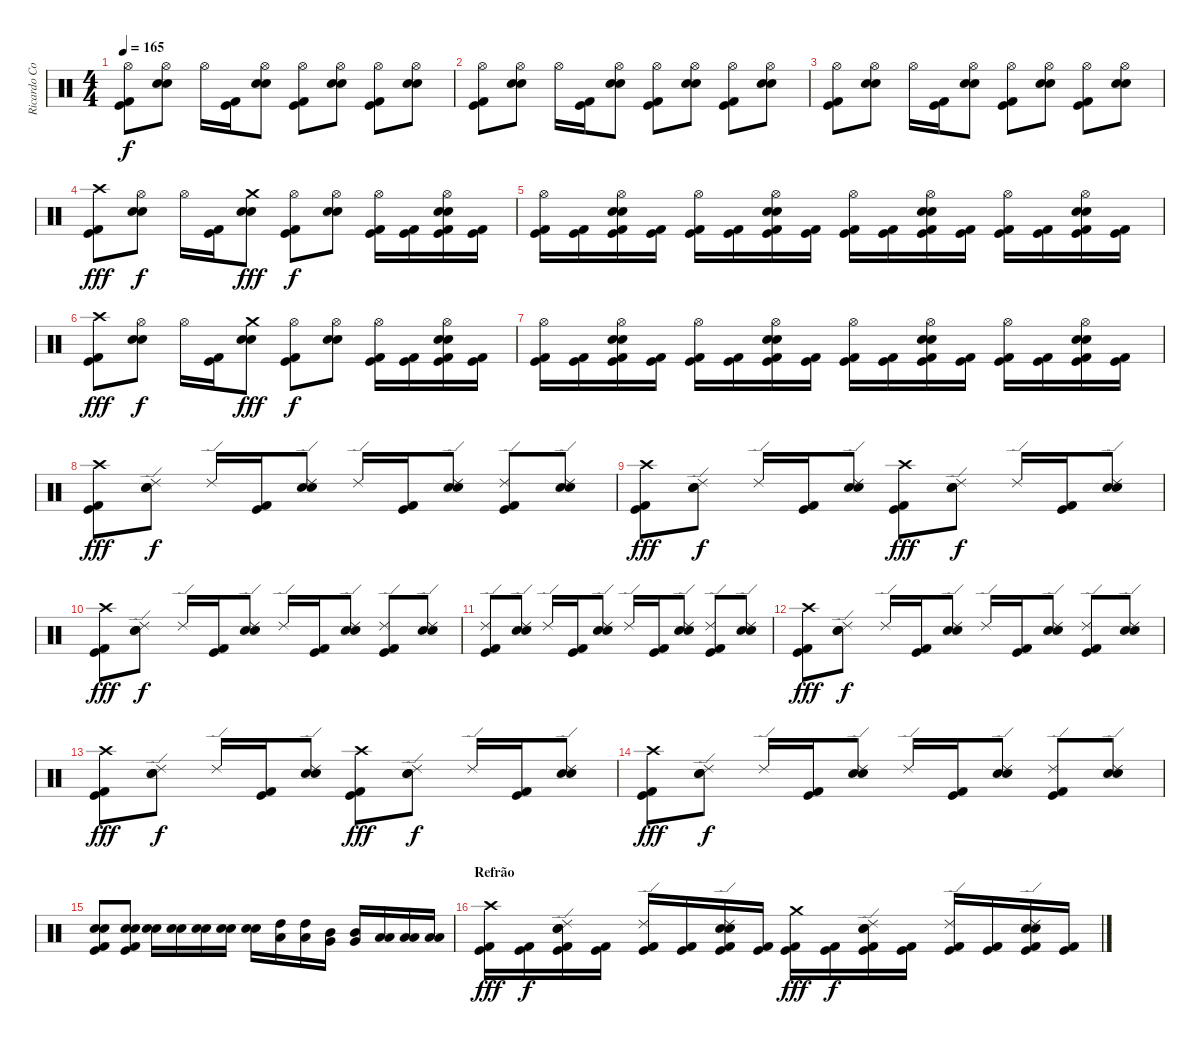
\track ("Ricardo Confessori" "Ricardo Co") {instrument percussion}
\staff {score}
\articulation defaults
\ts (4 4)
\tempo 165
\clef neutral
\ks c
("Hi-Hat (open)" "Kick (hit) 2" "Kick (hit)").8{dy f} ("Hi-Hat (open)" "Electric Snare (hit)" "Snare (hit) 2").8 "Hi-Hat (open)".16 ("Kick (hit) 2" "Kick (hit)").16 ("Hi-Hat (open)" "Electric Snare (hit)" "Snare (hit) 2").8 ("Hi-Hat (open)" "Kick (hit) 2" "Kick (hit)").8 ("Hi-Hat (open)" "Electric Snare (hit)" "Snare (hit) 2").8 ("Hi-Hat (open)" "Kick (hit) 2" "Kick (hit)").8 ("Hi-Hat (open)" "Electric Snare (hit)" "Snare (hit) 2").8 |
("Hi-Hat (open)" "Kick (hit) 2" "Kick (hit)").8 ("Hi-Hat (open)" "Electric Snare (hit)" "Snare (hit) 2").8 "Hi-Hat (open)".16 ("Kick (hit) 2" "Kick (hit)").16 ("Hi-Hat (open)" "Electric Snare (hit)" "Snare (hit) 2").8 ("Hi-Hat (open)" "Kick (hit) 2" "Kick (hit)").8 ("Hi-Hat (open)" "Electric Snare (hit)" "Snare (hit) 2").8 ("Hi-Hat (open)" "Kick (hit) 2" "Kick (hit)").8 ("Hi-Hat (open)" "Electric Snare (hit)" "Snare (hit) 2").8 |
("Hi-Hat (open)" "Kick (hit) 2" "Kick (hit)").8 ("Hi-Hat (open)" "Electric Snare (hit)" "Snare (hit) 2").8 "Hi-Hat (open)".16 ("Kick (hit) 2" "Kick (hit)").16 ("Hi-Hat (open)" "Electric Snare (hit)" "Snare (hit) 2").8 ("Hi-Hat (open)" "Kick (hit) 2" "Kick (hit)").8 ("Hi-Hat (open)" "Electric Snare (hit)" "Snare (hit) 2").8 ("Hi-Hat (open)" "Kick (hit) 2" "Kick (hit)").8 ("Hi-Hat (open)" "Electric Snare (hit)" "Snare (hit) 2").8 |
("Crash high (hit)" "Kick (hit) 2" "Kick (hit)").8{dy fff} ("Hi-Hat (open)" "Electric Snare (hit)" "Snare (hit) 2").8{dy f} "Hi-Hat (open)".16 ("Kick (hit) 2" "Kick (hit)").16 ("Crash medium (hit)" "Electric Snare (hit)" "Snare (hit) 2").8{dy fff} ("Hi-Hat (open)" "Kick (hit) 2" "Kick (hit)").8{dy f} ("Hi-Hat (open)" "Electric Snare (hit)" "Snare (hit) 2").8 ("Hi-Hat (open)" "Kick (hit) 2" "Kick (hit)").16 ("Kick (hit) 2" "Kick (hit)").16 ("Hi-Hat (open)" "Electric Snare (hit)" "Snare (hit) 2" "Kick (hit) 2" "Kick (hit)").16 ("Kick (hit) 2" "Kick (hit)").16 |
("Hi-Hat (open)" "Kick (hit) 2" "Kick (hit)").16 ("Kick (hit) 2" "Kick (hit)").16 ("Hi-Hat (open)" "Electric Snare (hit)" "Snare (hit) 2" "Kick (hit) 2" "Kick (hit)").16 ("Kick (hit) 2" "Kick (hit)").16 ("Hi-Hat (open)" "Kick (hit) 2" "Kick (hit)").16 ("Kick (hit) 2" "Kick (hit)").16 ("Hi-Hat (open)" "Electric Snare (hit)" "Snare (hit) 2" "Kick (hit) 2" "Kick (hit)").16 ("Kick (hit) 2" "Kick (hit)").16 ("Hi-Hat (open)" "Kick (hit) 2" "Kick (hit)").16 ("Kick (hit) 2" "Kick (hit)").16 ("Hi-Hat (open)" "Electric Snare (hit)" "Snare (hit) 2" "Kick (hit) 2" "Kick (hit)").16 ("Kick (hit) 2" "Kick (hit)").16 ("Hi-Hat (open)" "Kick (hit) 2" "Kick (hit)").16 ("Kick (hit) 2" "Kick (hit)").16 ("Hi-Hat (open)" "Electric Snare (hit)" "Snare (hit) 2" "Kick (hit) 2" "Kick (hit)").16 ("Kick (hit) 2" "Kick (hit)").16 |
("Crash high (hit)" "Kick (hit) 2" "Kick (hit)").8{dy fff} ("Hi-Hat (open)" "Electric Snare (hit)" "Snare (hit) 2").8{dy f} "Hi-Hat (open)".16 ("Kick (hit) 2" "Kick (hit)").16 ("Crash medium (hit)" "Electric Snare (hit)" "Snare (hit) 2").8{dy fff} ("Hi-Hat (open)" "Kick (hit) 2" "Kick (hit)").8{dy f} ("Hi-Hat (open)" "Electric Snare (hit)" "Snare (hit) 2").8 ("Hi-Hat (open)" "Kick (hit) 2" "Kick (hit)").16 ("Kick (hit) 2" "Kick (hit)").16 ("Hi-Hat (open)" "Electric Snare (hit)" "Snare (hit) 2" "Kick (hit) 2" "Kick (hit)").16 ("Kick (hit) 2" "Kick (hit)").16 |
("Hi-Hat (open)" "Kick (hit) 2" "Kick (hit)").16 ("Kick (hit) 2" "Kick (hit)").16 ("Hi-Hat (open)" "Electric Snare (hit)" "Snare (hit) 2" "Kick (hit) 2" "Kick (hit)").16 ("Kick (hit) 2" "Kick (hit)").16 ("Hi-Hat (open)" "Kick (hit) 2" "Kick (hit)").16 ("Kick (hit) 2" "Kick (hit)").16 ("Hi-Hat (open)" "Electric Snare (hit)" "Snare (hit) 2" "Kick (hit) 2" "Kick (hit)").16 ("Kick (hit) 2" "Kick (hit)").16 ("Hi-Hat (open)" "Kick (hit) 2" "Kick (hit)").16 ("Kick (hit) 2" "Kick (hit)").16 ("Hi-Hat (open)" "Electric Snare (hit)" "Snare (hit) 2" "Kick (hit) 2" "Kick (hit)").16 ("Kick (hit) 2" "Kick (hit)").16 ("Hi-Hat (open)" "Kick (hit) 2" "Kick (hit)").16 ("Kick (hit) 2" "Kick (hit)").16 ("Hi-Hat (open)" "Electric Snare (hit)" "Snare (hit) 2" "Kick (hit) 2" "Kick (hit)").16 ("Kick (hit) 2" "Kick (hit)").16 |
("Crash high (hit)" "Kick (hit) 2" "Kick (hit)").8{dy fff} ("Ride (edge) 2" "Electric Snare (hit)" "Snare (hit) 2").8{dy f} "Ride (edge) 2".16 ("Kick (hit) 2" "Kick (hit)").16 ("Ride (edge) 2" "Electric Snare (hit)" "Snare (hit) 2").8 "Ride (edge) 2".16 ("Kick (hit) 2" "Kick (hit)").16 ("Ride (edge) 2" "Electric Snare (hit)" "Snare (hit) 2").8 ("Ride (edge) 2" "Kick (hit) 2" "Kick (hit)").8 ("Ride (edge) 2" "Electric Snare (hit)" "Snare (hit) 2").8 |
("Crash high (hit)" "Kick (hit) 2" "Kick (hit)").8{dy fff} ("Ride (edge) 2" "Electric Snare (hit)" "Snare (hit) 2").8{dy f} "Ride (edge) 2".16 ("Kick (hit) 2" "Kick (hit)").16 ("Ride (edge) 2" "Electric Snare (hit)" "Snare (hit) 2").8 ("Crash high (hit)" "Kick (hit) 2" "Kick (hit)").8{dy fff} ("Ride (edge) 2" "Electric Snare (hit)" "Snare (hit) 2").8{dy f} "Ride (edge) 2".16 ("Kick (hit) 2" "Kick (hit)").16 ("Ride (edge) 2" "Electric Snare (hit)" "Snare (hit) 2").8 |
("Crash high (hit)" "Kick (hit) 2" "Kick (hit)").8{dy fff} ("Ride (edge) 2" "Electric Snare (hit)" "Snare (hit) 2").8{dy f} "Ride (edge) 2".16 ("Kick (hit) 2" "Kick (hit)").16 ("Ride (edge) 2" "Electric Snare (hit)" "Snare (hit) 2").8 "Ride (edge) 2".16 ("Kick (hit) 2" "Kick (hit)").16 ("Ride (edge) 2" "Electric Snare (hit)" "Snare (hit) 2").8 ("Ride (edge) 2" "Kick (hit) 2" "Kick (hit)").8 ("Ride (edge) 2" "Electric Snare (hit)" "Snare (hit) 2").8 |
("Ride (edge) 2" "Kick (hit) 2" "Kick (hit)").8 ("Ride (edge) 2" "Electric Snare (hit)" "Snare (hit) 2").8 "Ride (edge) 2".16 ("Kick (hit) 2" "Kick (hit)").16 ("Ride (edge) 2" "Electric Snare (hit)" "Snare (hit) 2").8 "Ride (edge) 2".16 ("Kick (hit) 2" "Kick (hit)").16 ("Ride (edge) 2" "Electric Snare (hit)" "Snare (hit) 2").8 ("Ride (edge) 2" "Kick (hit) 2" "Kick (hit)").8 ("Ride (edge) 2" "Electric Snare (hit)" "Snare (hit) 2").8 |
("Crash high (hit)" "Kick (hit) 2" "Kick (hit)").8{dy fff} ("Ride (edge) 2" "Electric Snare (hit)" "Snare (hit) 2").8{dy f} "Ride (edge) 2".16 ("Kick (hit) 2" "Kick (hit)").16 ("Ride (edge) 2" "Electric Snare (hit)" "Snare (hit) 2").8 "Ride (edge) 2".16 ("Kick (hit) 2" "Kick (hit)").16 ("Ride (edge) 2" "Electric Snare (hit)" "Snare (hit) 2").8 ("Ride (edge) 2" "Kick (hit) 2" "Kick (hit)").8 ("Ride (edge) 2" "Electric Snare (hit)" "Snare (hit) 2").8 |
("Crash high (hit)" "Kick (hit) 2" "Kick (hit)").8{dy fff} ("Ride (edge) 2" "Electric Snare (hit)" "Snare (hit) 2").8{dy f} "Ride (edge) 2".16 ("Kick (hit) 2" "Kick (hit)").16 ("Ride (edge) 2" "Electric Snare (hit)" "Snare (hit) 2").8 ("Crash high (hit)" "Kick (hit) 2" "Kick (hit)").8{dy fff} ("Ride (edge) 2" "Electric Snare (hit)" "Snare (hit) 2").8{dy f} "Ride (edge) 2".16 ("Kick (hit) 2" "Kick (hit)").16 ("Ride (edge) 2" "Electric Snare (hit)" "Snare (hit) 2").8 |
("Crash high (hit)" "Kick (hit) 2" "Kick (hit)").8{dy fff} ("Ride (edge) 2" "Electric Snare (hit)" "Snare (hit) 2").8{dy f} "Ride (edge) 2".16 ("Kick (hit) 2" "Kick (hit)").16 ("Ride (edge) 2" "Electric Snare (hit)" "Snare (hit) 2").8 "Ride (edge) 2".16 ("Kick (hit) 2" "Kick (hit)").16 ("Ride (edge) 2" "Electric Snare (hit)" "Snare (hit) 2").8 ("Ride (edge) 2" "Kick (hit) 2" "Kick (hit)").8 ("Ride (edge) 2" "Electric Snare (hit)" "Snare (hit) 2").8 |
("Electric Snare (hit)" "Snare (hit) 2" "Kick (hit) 2" "Kick (hit)").8 ("Electric Snare (hit)" "Snare (hit) 2" "Kick (hit) 2" "Kick (hit)").8 ("Electric Snare (hit)" "Snare (hit) 2").16 ("Electric Snare (hit)" "Snare (hit) 2").16 ("Electric Snare (hit)" "Snare (hit) 2").16 ("Electric Snare (hit)" "Snare (hit) 2").16 ("Electric Snare (hit)" "Snare (hit) 2").16 ("High Tom (hit)" "Low Tom (hit)").16 ("High Tom (hit)" "Low Tom (hit)").16 ("Mid Tom (hit)" "Very Low Tom (hit)").16 ("Mid Tom (hit)" "Very Low Tom (hit)").16 ("Low Tom (hit)" "Low Floor Tom (hit)").16 ("Low Tom (hit)" "Low Floor Tom (hit)").16 ("Low Tom (hit)" "Low Floor Tom (hit)").16 |
\section ("" "Refrão")
("Crash high (hit)" "Kick (hit) 2" "Kick (hit)").16{dy fff} ("Kick (hit) 2" "Kick (hit)").16{dy f} ("Ride (edge) 2" "Electric Snare (hit)" "Snare (hit) 2" "Kick (hit) 2" "Kick (hit)").16 ("Kick (hit) 2" "Kick (hit)").16 ("Ride (edge) 2" "Kick (hit) 2" "Kick (hit)").16 ("Kick (hit) 2" "Kick (hit)").16 ("Ride (edge) 2" "Electric Snare (hit)" "Snare (hit) 2" "Kick (hit) 2" "Kick (hit)").16 ("Kick (hit) 2" "Kick (hit)").16 ("Crash medium (hit)" "Kick (hit) 2" "Kick (hit)").16{dy fff} ("Kick (hit) 2" "Kick (hit)").16{dy f} ("Ride (edge) 2" "Electric Snare (hit)" "Snare (hit) 2" "Kick (hit) 2" "Kick (hit)").16 ("Kick (hit) 2" "Kick (hit)").16 ("Ride (edge) 2" "Kick (hit) 2" "Kick (hit)").16 ("Kick (hit) 2" "Kick (hit)").16 ("Ride (edge) 2" "Electric Snare (hit)" "Snare (hit) 2" "Kick (hit) 2" "Kick (hit)").16 ("Kick (hit) 2" "Kick (hit)").16
